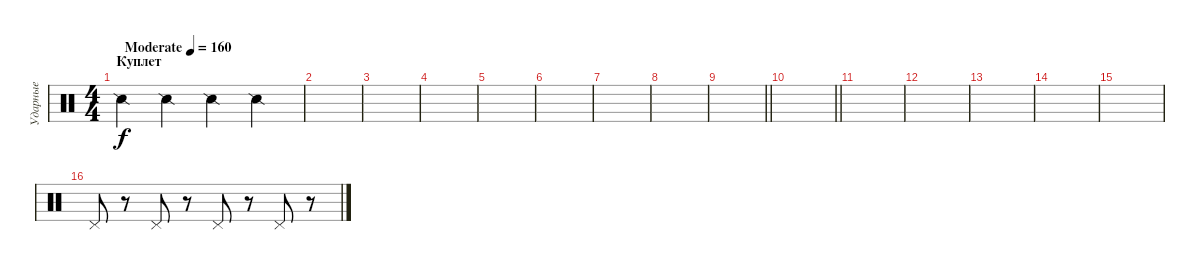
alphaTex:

\track ("Ударные" "Ударные") {instrument percussion}
\staff {score}
\articulation defaults
\ts (4 4)
\section ("" "Куплет")
\tempo (160 "Moderate")
\clef neutral
\ks c "Snare (side stick) 2".4{dy f} "Snare (side stick) 2".4 "Snare (side stick) 2".4 "Snare (side stick) 2".4
|
|
|
|
|
|
|
|
\barLineRight lightlight
|
\section ("" " ")
\barLineRight lightlight
|
|
|
|
|
|
"Pedal Hi-Hat (hit)".8 r.8 "Pedal Hi-Hat (hit)".8 r.8 "Pedal Hi-Hat (hit)".8 r.8 "Pedal Hi-Hat (hit)".8 r.8
